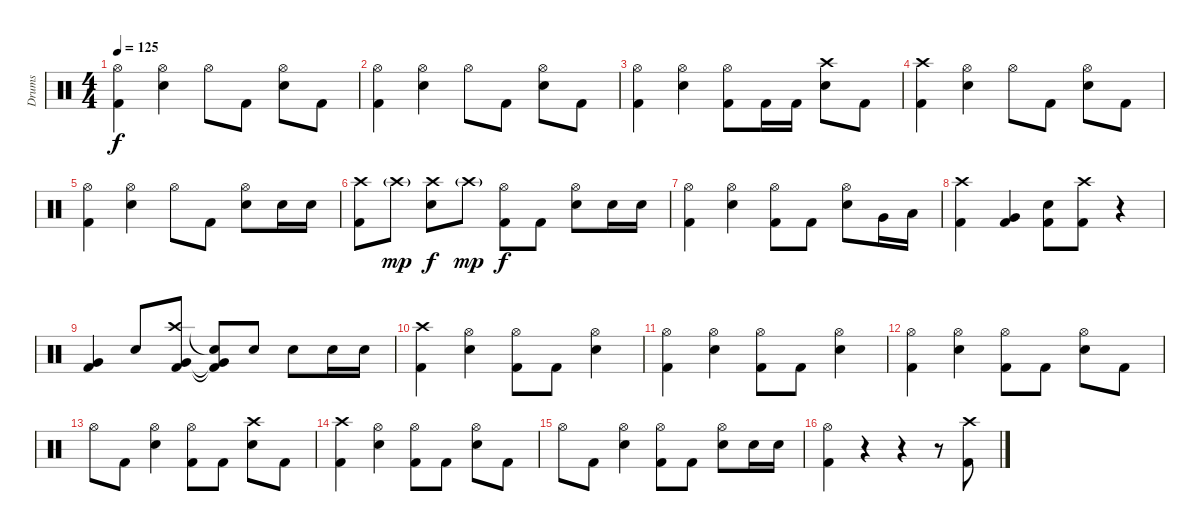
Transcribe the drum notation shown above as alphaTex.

\track ("Drums" "Drums") {instrument percussion}
\staff {score}
\articulation defaults
\ts (4 4)
\tempo 125
\clef neutral
\ks c
("Hi-Hat (open)" "Kick (hit) 2").4{dy f} ("Hi-Hat (open)" "Electric Snare (hit)").4 "Hi-Hat (open)".8 "Kick (hit) 2".8 ("Hi-Hat (open)" "Electric Snare (hit)").8 "Kick (hit) 2".8 |
("Hi-Hat (open)" "Kick (hit) 2").4 ("Hi-Hat (open)" "Electric Snare (hit)").4 "Hi-Hat (open)".8 "Kick (hit) 2".8 ("Hi-Hat (open)" "Electric Snare (hit)").8 "Kick (hit) 2".8 |
("Hi-Hat (open)" "Kick (hit) 2").4 ("Hi-Hat (open)" "Electric Snare (hit)").4 ("Hi-Hat (open)" "Kick (hit) 2").8 "Kick (hit) 2".16 "Kick (hit) 2".16 ("Crash high (hit)" "Electric Snare (hit)").8 "Kick (hit) 2".8 |
("Crash high (hit)" "Kick (hit) 2").4 ("Hi-Hat (open)" "Electric Snare (hit)").4 "Hi-Hat (open)".8 "Kick (hit) 2".8 ("Hi-Hat (open)" "Electric Snare (hit)").8 "Kick (hit) 2".8 |
("Hi-Hat (open)" "Kick (hit) 2").4 ("Hi-Hat (open)" "Electric Snare (hit)").4 "Hi-Hat (open)".8 "Kick (hit) 2".8 ("Hi-Hat (open)" "Electric Snare (hit)").8 "Electric Snare (hit)".16 "Electric Snare (hit)".16 |
("Crash high (hit)" "Kick (hit) 2").8 "Crash high (hit)"{g}.8{dy mp} ("Crash high (hit)" "Electric Snare (hit)").8{dy f} "Crash high (hit)"{g}.8{dy mp} ("Hi-Hat (open)" "Kick (hit) 2").8{dy f} "Kick (hit) 2".8 ("Hi-Hat (open)" "Electric Snare (hit)").8 "Electric Snare (hit)".16 "Electric Snare (hit)".16 |
("Hi-Hat (open)" "Kick (hit) 2").4 ("Hi-Hat (open)" "Electric Snare (hit)").4 ("Hi-Hat (open)" "Kick (hit) 2").8 "Kick (hit) 2".8 ("Hi-Hat (open)" "Electric Snare (hit)").8 "Very Low Tom (hit)".16 "Low Floor Tom (hit)".16 |
("Crash high (hit)" "Kick (hit) 2").4 ("Very Low Tom (hit)" "Kick (hit) 2").4 ("Electric Snare (hit)" "Kick (hit) 2").8 ("Crash high (hit)" "Kick (hit) 2").8 r.4 |
("Very Low Tom (hit)" "Kick (hit) 2").4 "Electric Snare (hit)".8 ("Crash high (hit)" "Very Low Tom (hit)" "Kick (hit) 2").8 ("Snare (hit)"{t} "Very Low Tom (hit)"{t} "Kick (hit) 2"{t}).8 "Electric Snare (hit)".8 "Electric Snare (hit)".8 "Electric Snare (hit)".16 "Electric Snare (hit)".16 |
("Crash high (hit)" "Kick (hit) 2").4 ("Hi-Hat (open)" "Electric Snare (hit)").4 ("Hi-Hat (open)" "Kick (hit) 2").8 "Kick (hit) 2".8 ("Hi-Hat (open)" "Electric Snare (hit)").4 |
("Hi-Hat (open)" "Kick (hit) 2").4 ("Hi-Hat (open)" "Electric Snare (hit)").4 ("Hi-Hat (open)" "Kick (hit) 2").8 "Kick (hit) 2".8 ("Hi-Hat (open)" "Electric Snare (hit)").4 |
("Hi-Hat (open)" "Kick (hit) 2").4 ("Hi-Hat (open)" "Electric Snare (hit)").4 ("Hi-Hat (open)" "Kick (hit) 2").8 "Kick (hit) 2".8 ("Hi-Hat (open)" "Electric Snare (hit)").8 "Kick (hit) 2".8 |
"Hi-Hat (open)".8 "Kick (hit) 2".8 ("Hi-Hat (open)" "Electric Snare (hit)").4 ("Hi-Hat (open)" "Kick (hit) 2").8 "Kick (hit) 2".8 ("Crash high (hit)" "Electric Snare (hit)").8 "Kick (hit) 2".8 |
("Crash high (hit)" "Kick (hit) 2").4 ("Hi-Hat (open)" "Electric Snare (hit)").4 ("Hi-Hat (open)" "Kick (hit) 2").8 "Kick (hit) 2".8 ("Hi-Hat (open)" "Electric Snare (hit)").8 "Kick (hit) 2".8 |
"Hi-Hat (open)".8 "Kick (hit) 2".8 ("Hi-Hat (open)" "Electric Snare (hit)").4 ("Hi-Hat (open)" "Kick (hit) 2").8 "Kick (hit) 2".8 ("Hi-Hat (open)" "Electric Snare (hit)").8 "Electric Snare (hit)".16 "Electric Snare (hit)".16 |
("Hi-Hat (open)" "Kick (hit) 2").4 r.4 r.4 r.8 ("Crash high (hit)" "Kick (hit) 2").8
